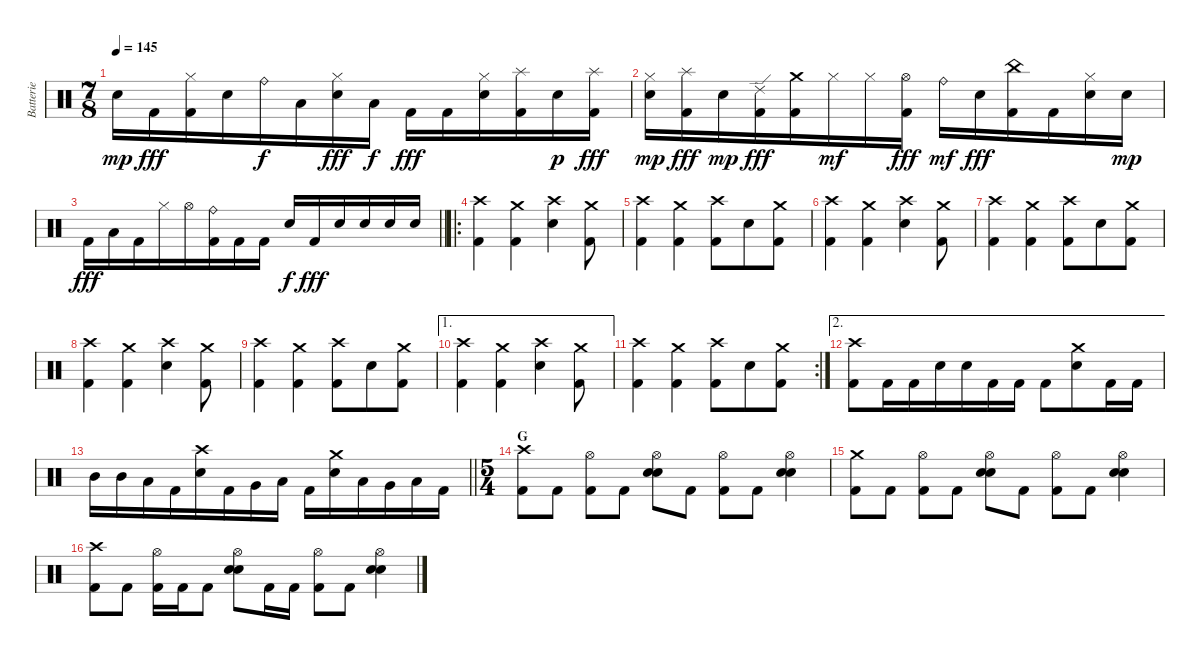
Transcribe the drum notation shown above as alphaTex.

\track ("Batterie" "Batterie") {instrument percussion}
\staff {score}
\articulation defaults
\ts (7 8)
\tempo 145
\clef neutral
\ks c "Electric Snare (hit)".16{dy mp} "Kick (hit) 2".16{dy fff}
("Hi-Hat (closed)" "Kick (hit) 2").16 "Electric Snare (hit)".16 "Ride (bell)".16{dy f} "Low Tom (hit)".16 ("Hi-Hat (closed)" "Electric Snare (hit)").16{dy fff} "Low Floor Tom (hit)".16{dy f} "Kick (hit) 2".16{dy fff} "Kick (hit) 2".16 ("Hi-Hat (closed)" "Electric Snare (hit)").16 ("Splash (hit)" "Kick (hit) 2").16 "Electric Snare (hit)".16{dy p} ("Splash (hit)" "Kick (hit) 2").16{dy fff} |
("Hi-Hat (closed)" "Electric Snare (hit)").16{dy mp} ("Splash (hit)" "Kick (hit) 2").16{dy fff} "Electric Snare (hit)".16{dy mp} ("Ride (edge) 2" "Kick (hit) 2").16{dy fff} ("Crash medium (hit)" "Kick (hit) 2").16 "Hi-Hat (closed)".16{dy mf} "Hi-Hat (closed)".16 ("Hi-Hat (open)" "Kick (hit) 2").16{dy fff} "Ride (bell)".16{dy mf} "Electric Snare (hit)".16{dy fff} ("China (hit)" "Kick (hit) 2").16 "Kick (hit) 2".16 ("Hi-Hat (closed)" "Electric Snare (hit)").16 "Electric Snare (hit)".16{dy mp} |
\barLineRight lightlight "Kick (hit) 2".16{dy fff} "Low Floor Tom (hit)".16 "Kick (hit) 2".16 "Hi-Hat (closed)".16 "Hi-Hat (open)".16
("Ride (bell)" "Kick (hit) 2").16 "Kick (hit) 2".16 "Kick (hit) 2".16 "Electric Snare (hit)".16{dy f} "Kick (hit) 2".16{dy fff} "Electric Snare (hit)".16 "Electric Snare (hit)".16 "Electric Snare (hit)".16 "Electric Snare (hit)".16 |
\ro
\section ("" "")
("Crash high (hit)" "Kick (hit) 2").4 ("Crash medium (hit)" "Kick (hit) 2").4 ("Crash high (hit)" "Electric Snare (hit)").4 ("Crash medium (hit)" "Kick (hit) 2").8 |
("Crash high (hit)" "Kick (hit) 2").4 ("Crash medium (hit)" "Kick (hit) 2").4 ("Crash high (hit)" "Kick (hit) 2").8 "Electric Snare (hit)".8 ("Crash medium (hit)" "Kick (hit) 2").8 |
("Crash high (hit)" "Kick (hit) 2").4 ("Crash medium (hit)" "Kick (hit) 2").4 ("Crash high (hit)" "Electric Snare (hit)").4 ("Crash medium (hit)" "Kick (hit) 2").8 |
("Crash high (hit)" "Kick (hit) 2").4 ("Crash medium (hit)" "Kick (hit) 2").4 ("Crash high (hit)" "Kick (hit) 2").8 "Electric Snare (hit)".8 ("Crash medium (hit)" "Kick (hit) 2").8 |
("Crash high (hit)" "Kick (hit) 2").4 ("Crash medium (hit)" "Kick (hit) 2").4 ("Crash high (hit)" "Electric Snare (hit)").4 ("Crash medium (hit)" "Kick (hit) 2").8 |
("Crash high (hit)" "Kick (hit) 2").4 ("Crash medium (hit)" "Kick (hit) 2").4 ("Crash high (hit)" "Kick (hit) 2").8 "Electric Snare (hit)".8 ("Crash medium (hit)" "Kick (hit) 2").8 |
\ae 1
("Crash high (hit)" "Kick (hit) 2").4 ("Crash medium (hit)" "Kick (hit) 2").4 ("Crash high (hit)" "Electric Snare (hit)").4 ("Crash medium (hit)" "Kick (hit) 2").8 |
\rc 2
("Crash high (hit)" "Kick (hit) 2").4 ("Crash medium (hit)" "Kick (hit) 2").4 ("Crash high (hit)" "Kick (hit) 2").8 "Electric Snare (hit)".8 ("Crash medium (hit)" "Kick (hit) 2").8 |
\ae 2
("Crash high (hit)" "Kick (hit) 2").8 "Kick (hit) 2".16 "Kick (hit) 2".16 "Electric Snare (hit)".16 "Electric Snare (hit)".16 "Kick (hit) 2".16 "Kick (hit) 2".16 "Kick (hit) 2".8 ("Crash medium (hit)" "Electric Snare (hit)").8 "Kick (hit) 2".16 "Kick (hit) 2".16 |
\barLineRight lightlight "Mid Tom (hit)".16 "Mid Tom (hit)".16 "Low Tom (hit)".16 "Kick (hit) 2".16
("Electric Snare (hit)" "Crash high (hit)").16 "Kick (hit) 2".16 "Very Low Tom (hit)".16 "Low Floor Tom (hit)".16 "Kick (hit) 2".16 ("Electric Snare (hit)" "Crash medium (hit)").16 "Low Tom (hit)".16 "Very Low Tom (hit)".16 "Low Floor Tom (hit)".16 "Kick (hit) 2".16 |
\ts (5 4)
\section ("" "G")
("Crash high (hit)" "Kick (hit) 2").8{volume 16} "Kick (hit) 2".8 ("Hi-Hat (open)" "Kick (hit) 2").8 "Kick (hit) 2".8 ("Hi-Hat (open)" "Electric Snare (hit)" "Electric Snare (hit)").8 "Kick (hit) 2".8 ("Hi-Hat (open)" "Kick (hit) 2").8 "Kick (hit) 2".8 ("Hi-Hat (open)" "Electric Snare (hit)" "Electric Snare (hit)").4 |
("Crash medium (hit)" "Kick (hit) 2").8 "Kick (hit) 2".8 ("Hi-Hat (open)" "Kick (hit) 2").8 "Kick (hit) 2".8 ("Hi-Hat (open)" "Electric Snare (hit)" "Electric Snare (hit)").8 "Kick (hit) 2".8 ("Hi-Hat (open)" "Kick (hit) 2").8 "Kick (hit) 2".8 ("Hi-Hat (open)" "Electric Snare (hit)" "Electric Snare (hit)").4 |
("Crash high (hit)" "Kick (hit) 2").8 "Kick (hit) 2".8 ("Hi-Hat (open)" "Kick (hit) 2").16 "Kick (hit) 2".16 "Kick (hit) 2".8 ("Hi-Hat (open)" "Electric Snare (hit)" "Electric Snare (hit)").8 "Kick (hit) 2".16 "Kick (hit) 2".16 ("Hi-Hat (open)" "Kick (hit) 2").8 "Kick (hit) 2".8 ("Hi-Hat (open)" "Electric Snare (hit)" "Electric Snare (hit)").4
